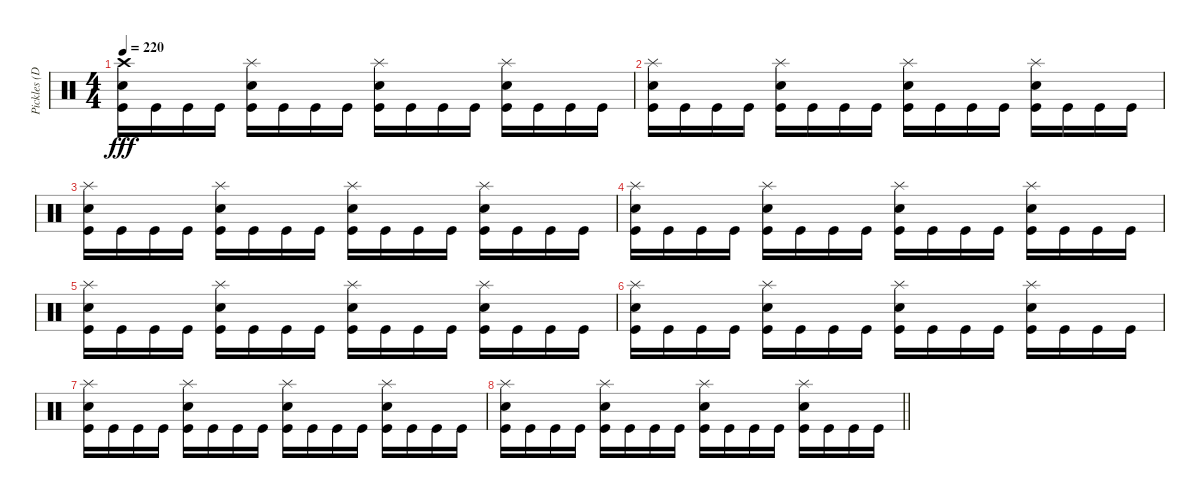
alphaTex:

\track ("Pickles (Drums)" "Pickles (D") {instrument percussion}
\staff {score}
\articulation defaults
\ts (4 4)
\tempo 220
\clef neutral
\ks c
("Crash high (hit)" "Electric Snare (hit)" "Kick (hit)").16{dy fff} "Kick (hit)".16 "Kick (hit)".16 "Kick (hit)".16 ("Splash (hit)" "Electric Snare (hit)" "Kick (hit)").16 "Kick (hit)".16 "Kick (hit)".16 "Kick (hit)".16 ("Splash (hit)" "Electric Snare (hit)" "Kick (hit)").16 "Kick (hit)".16 "Kick (hit)".16 "Kick (hit)".16 ("Splash (hit)" "Electric Snare (hit)" "Kick (hit)").16 "Kick (hit)".16 "Kick (hit)".16 "Kick (hit)".16 |
("Splash (hit)" "Electric Snare (hit)" "Kick (hit)").16 "Kick (hit)".16 "Kick (hit)".16 "Kick (hit)".16 ("Splash (hit)" "Electric Snare (hit)" "Kick (hit)").16 "Kick (hit)".16 "Kick (hit)".16 "Kick (hit)".16 ("Splash (hit)" "Electric Snare (hit)" "Kick (hit)").16 "Kick (hit)".16 "Kick (hit)".16 "Kick (hit)".16 ("Splash (hit)" "Electric Snare (hit)" "Kick (hit)").16 "Kick (hit)".16 "Kick (hit)".16 "Kick (hit)".16 |
("Splash (hit)" "Electric Snare (hit)" "Kick (hit)").16 "Kick (hit)".16 "Kick (hit)".16 "Kick (hit)".16 ("Splash (hit)" "Electric Snare (hit)" "Kick (hit)").16 "Kick (hit)".16 "Kick (hit)".16 "Kick (hit)".16 ("Splash (hit)" "Electric Snare (hit)" "Kick (hit)").16 "Kick (hit)".16 "Kick (hit)".16 "Kick (hit)".16 ("Splash (hit)" "Electric Snare (hit)" "Kick (hit)").16 "Kick (hit)".16 "Kick (hit)".16 "Kick (hit)".16 |
("Splash (hit)" "Electric Snare (hit)" "Kick (hit)").16 "Kick (hit)".16 "Kick (hit)".16 "Kick (hit)".16 ("Splash (hit)" "Electric Snare (hit)" "Kick (hit)").16 "Kick (hit)".16 "Kick (hit)".16 "Kick (hit)".16 ("Splash (hit)" "Electric Snare (hit)" "Kick (hit)").16 "Kick (hit)".16 "Kick (hit)".16 "Kick (hit)".16 ("Splash (hit)" "Electric Snare (hit)" "Kick (hit)").16 "Kick (hit)".16 "Kick (hit)".16 "Kick (hit)".16 |
("Splash (hit)" "Electric Snare (hit)" "Kick (hit)").16 "Kick (hit)".16 "Kick (hit)".16 "Kick (hit)".16 ("Splash (hit)" "Electric Snare (hit)" "Kick (hit)").16 "Kick (hit)".16 "Kick (hit)".16 "Kick (hit)".16 ("Splash (hit)" "Electric Snare (hit)" "Kick (hit)").16 "Kick (hit)".16 "Kick (hit)".16 "Kick (hit)".16 ("Splash (hit)" "Electric Snare (hit)" "Kick (hit)").16 "Kick (hit)".16 "Kick (hit)".16 "Kick (hit)".16 |
("Splash (hit)" "Electric Snare (hit)" "Kick (hit)").16 "Kick (hit)".16 "Kick (hit)".16 "Kick (hit)".16 ("Splash (hit)" "Electric Snare (hit)" "Kick (hit)").16 "Kick (hit)".16 "Kick (hit)".16 "Kick (hit)".16 ("Splash (hit)" "Electric Snare (hit)" "Kick (hit)").16 "Kick (hit)".16 "Kick (hit)".16 "Kick (hit)".16 ("Splash (hit)" "Electric Snare (hit)" "Kick (hit)").16 "Kick (hit)".16 "Kick (hit)".16 "Kick (hit)".16 |
("Splash (hit)" "Electric Snare (hit)" "Kick (hit)").16 "Kick (hit)".16 "Kick (hit)".16 "Kick (hit)".16 ("Splash (hit)" "Electric Snare (hit)" "Kick (hit)").16 "Kick (hit)".16 "Kick (hit)".16 "Kick (hit)".16 ("Splash (hit)" "Electric Snare (hit)" "Kick (hit)").16 "Kick (hit)".16 "Kick (hit)".16 "Kick (hit)".16 ("Splash (hit)" "Electric Snare (hit)" "Kick (hit)").16 "Kick (hit)".16 "Kick (hit)".16 "Kick (hit)".16 |
\barLineRight lightlight
("Splash (hit)" "Electric Snare (hit)" "Kick (hit)").16 "Kick (hit)".16 "Kick (hit)".16 "Kick (hit)".16 ("Splash (hit)" "Electric Snare (hit)" "Kick (hit)").16 "Kick (hit)".16 "Kick (hit)".16 "Kick (hit)".16 ("Splash (hit)" "Electric Snare (hit)" "Kick (hit)").16 "Kick (hit)".16 "Kick (hit)".16 "Kick (hit)".16 ("Splash (hit)" "Electric Snare (hit)" "Kick (hit)").16 "Kick (hit)".16 "Kick (hit)".16 "Kick (hit)".16
